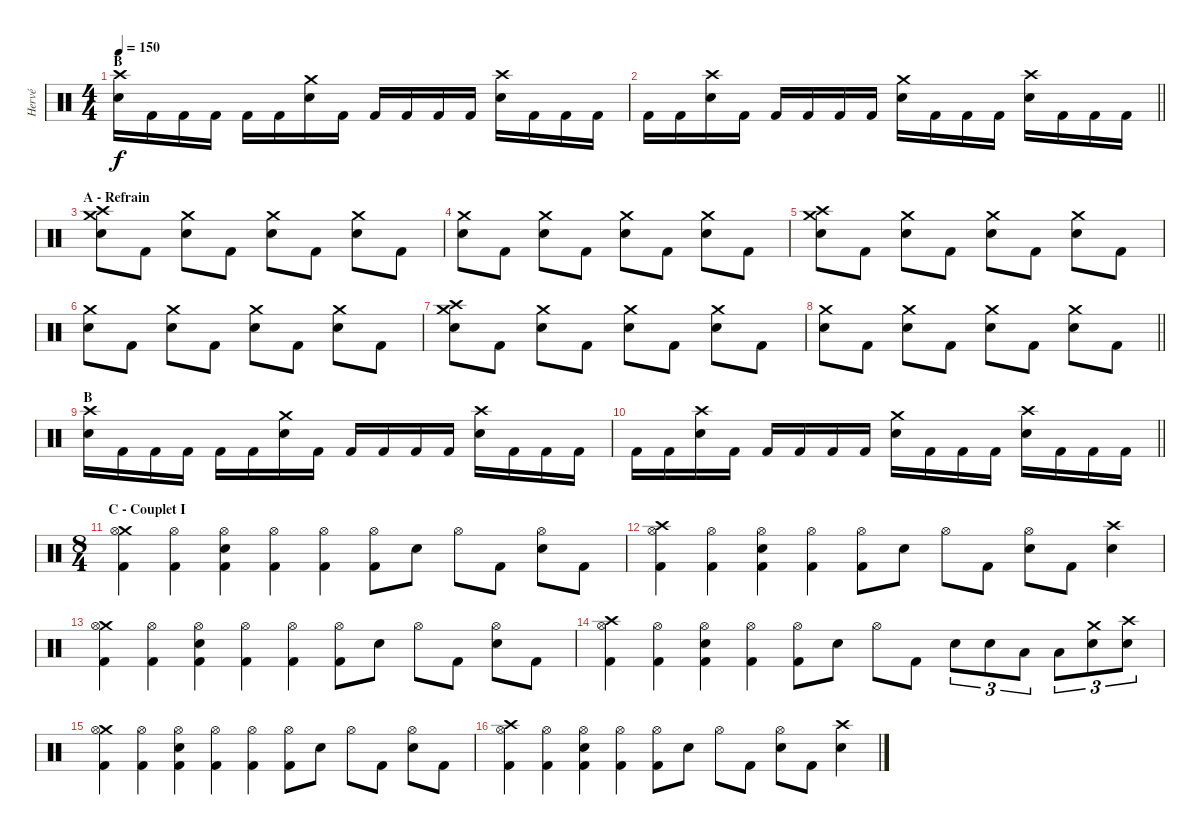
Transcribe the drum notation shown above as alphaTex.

\track ("Hervé" "Hervé") {instrument percussion}
\staff {score}
\articulation defaults
\ts (4 4)
\section ("" "B")
\tempo 150
\clef neutral
\ks c
("Crash high (hit)" "Snare (hit) 2").16{dy f} "Kick (hit) 2".16 "Kick (hit) 2".16 "Kick (hit) 2".16 "Kick (hit) 2".16 "Kick (hit) 2".16 ("Crash medium (hit)" "Snare (hit) 2").16 "Kick (hit) 2".16 "Kick (hit) 2".16 "Kick (hit) 2".16 "Kick (hit) 2".16 "Kick (hit) 2".16 ("Crash high (hit)" "Snare (hit) 2").16 "Kick (hit) 2".16 "Kick (hit) 2".16 "Kick (hit) 2".16 |
\barLineRight lightlight "Kick (hit) 2".16 "Kick (hit) 2".16
("Crash high (hit)" "Snare (hit) 2").16 "Kick (hit) 2".16 "Kick (hit) 2".16 "Kick (hit) 2".16 "Kick (hit) 2".16 "Kick (hit) 2".16 ("Crash medium (hit)" "Snare (hit) 2").16 "Kick (hit) 2".16 "Kick (hit) 2".16 "Kick (hit) 2".16 ("Crash high (hit)" "Snare (hit) 2").16 "Kick (hit) 2".16 "Kick (hit) 2".16 "Kick (hit) 2".16 |
\section ("" "A - Refrain")
("Crash high (hit)" "Crash medium (hit)" "Snare (hit) 2").8 "Kick (hit) 2".8 ("Crash medium (hit)" "Snare (hit) 2").8 "Kick (hit) 2".8 ("Crash medium (hit)" "Snare (hit) 2").8 "Kick (hit) 2".8 ("Crash medium (hit)" "Snare (hit) 2").8 "Kick (hit) 2".8 |
("Crash medium (hit)" "Snare (hit) 2").8 "Kick (hit) 2".8 ("Crash medium (hit)" "Snare (hit) 2").8 "Kick (hit) 2".8 ("Crash medium (hit)" "Snare (hit) 2").8 "Kick (hit) 2".8 ("Crash medium (hit)" "Snare (hit) 2").8 "Kick (hit) 2".8 |
("Crash high (hit)" "Crash medium (hit)" "Snare (hit) 2").8 "Kick (hit) 2".8 ("Crash medium (hit)" "Snare (hit) 2").8 "Kick (hit) 2".8 ("Crash medium (hit)" "Snare (hit) 2").8 "Kick (hit) 2".8 ("Crash medium (hit)" "Snare (hit) 2").8 "Kick (hit) 2".8 |
("Crash medium (hit)" "Snare (hit) 2").8 "Kick (hit) 2".8 ("Crash medium (hit)" "Snare (hit) 2").8 "Kick (hit) 2".8 ("Crash medium (hit)" "Snare (hit) 2").8 "Kick (hit) 2".8 ("Crash medium (hit)" "Snare (hit) 2").8 "Kick (hit) 2".8 |
("Crash high (hit)" "Crash medium (hit)" "Snare (hit) 2").8 "Kick (hit) 2".8 ("Crash medium (hit)" "Snare (hit) 2").8 "Kick (hit) 2".8 ("Crash medium (hit)" "Snare (hit) 2").8 "Kick (hit) 2".8 ("Crash medium (hit)" "Snare (hit) 2").8 "Kick (hit) 2".8 |
\barLineRight lightlight
("Crash medium (hit)" "Snare (hit) 2").8 "Kick (hit) 2".8 ("Crash medium (hit)" "Snare (hit) 2").8 "Kick (hit) 2".8 ("Crash medium (hit)" "Snare (hit) 2").8 "Kick (hit) 2".8 ("Crash medium (hit)" "Snare (hit) 2").8 "Kick (hit) 2".8 |
\section ("" "B")
("Crash high (hit)" "Snare (hit) 2").16 "Kick (hit) 2".16 "Kick (hit) 2".16 "Kick (hit) 2".16 "Kick (hit) 2".16 "Kick (hit) 2".16 ("Crash medium (hit)" "Snare (hit) 2").16 "Kick (hit) 2".16 "Kick (hit) 2".16 "Kick (hit) 2".16 "Kick (hit) 2".16 "Kick (hit) 2".16 ("Crash high (hit)" "Snare (hit) 2").16 "Kick (hit) 2".16 "Kick (hit) 2".16 "Kick (hit) 2".16 |
\barLineRight lightlight "Kick (hit) 2".16 "Kick (hit) 2".16
("Crash high (hit)" "Snare (hit) 2").16 "Kick (hit) 2".16 "Kick (hit) 2".16 "Kick (hit) 2".16 "Kick (hit) 2".16 "Kick (hit) 2".16 ("Crash medium (hit)" "Snare (hit) 2").16 "Kick (hit) 2".16 "Kick (hit) 2".16 "Kick (hit) 2".16 ("Crash high (hit)" "Snare (hit) 2").16 "Kick (hit) 2".16 "Kick (hit) 2".16 "Kick (hit) 2".16 |
\ts (8 4)
\section ("" "C - Couplet I")
("Crash medium (hit)" "Hi-Hat (open)" "Kick (hit) 2").4 ("Hi-Hat (open)" "Kick (hit) 2").4 ("Hi-Hat (open)" "Snare (hit) 2" "Kick (hit) 2").4 ("Hi-Hat (open)" "Kick (hit) 2").4 ("Hi-Hat (open)" "Kick (hit) 2").4 ("Hi-Hat (open)" "Kick (hit) 2").8 "Snare (hit) 2".8 "Hi-Hat (open)".8 "Kick (hit) 2".8 ("Hi-Hat (open)" "Snare (hit) 2").8 "Kick (hit) 2".8 |
("Crash high (hit)" "Hi-Hat (open)" "Kick (hit) 2").4 ("Hi-Hat (open)" "Kick (hit) 2").4 ("Hi-Hat (open)" "Snare (hit) 2" "Kick (hit) 2").4 ("Hi-Hat (open)" "Kick (hit) 2").4 ("Hi-Hat (open)" "Kick (hit) 2").8 "Snare (hit) 2".8 "Hi-Hat (open)".8 "Kick (hit) 2".8 ("Hi-Hat (open)" "Snare (hit) 2").8 "Kick (hit) 2".8 ("Crash high (hit)" "Snare (hit) 2").4 |
("Crash medium (hit)" "Hi-Hat (open)" "Kick (hit) 2").4 ("Hi-Hat (open)" "Kick (hit) 2").4 ("Hi-Hat (open)" "Snare (hit) 2" "Kick (hit) 2").4 ("Hi-Hat (open)" "Kick (hit) 2").4 ("Hi-Hat (open)" "Kick (hit) 2").4 ("Hi-Hat (open)" "Kick (hit) 2").8 "Snare (hit) 2".8 "Hi-Hat (open)".8 "Kick (hit) 2".8 ("Hi-Hat (open)" "Snare (hit) 2").8 "Kick (hit) 2".8 |
("Crash high (hit)" "Hi-Hat (open)" "Kick (hit) 2").4 ("Hi-Hat (open)" "Kick (hit) 2").4 ("Hi-Hat (open)" "Snare (hit) 2" "Kick (hit) 2").4 ("Hi-Hat (open)" "Kick (hit) 2").4 ("Hi-Hat (open)" "Kick (hit) 2").8 "Snare (hit) 2".8 "Hi-Hat (open)".8 "Kick (hit) 2".8 "Snare (hit) 2".8{tu (3 2)} "Snare (hit) 2".8{tu (3 2)} "Low Tom (hit)".8{tu (3 2)} "Low Tom (hit)".8{tu (3 2)} ("Crash medium (hit)" "Snare (hit) 2").8{tu (3 2)} ("Crash high (hit)" "Snare (hit) 2").8{tu (3 2)} |
("Crash medium (hit)" "Hi-Hat (open)" "Kick (hit) 2").4 ("Hi-Hat (open)" "Kick (hit) 2").4 ("Hi-Hat (open)" "Snare (hit) 2" "Kick (hit) 2").4 ("Hi-Hat (open)" "Kick (hit) 2").4 ("Hi-Hat (open)" "Kick (hit) 2").4 ("Hi-Hat (open)" "Kick (hit) 2").8 "Snare (hit) 2".8 "Hi-Hat (open)".8 "Kick (hit) 2".8 ("Hi-Hat (open)" "Snare (hit) 2").8 "Kick (hit) 2".8 |
("Crash high (hit)" "Hi-Hat (open)" "Kick (hit) 2").4 ("Hi-Hat (open)" "Kick (hit) 2").4 ("Hi-Hat (open)" "Snare (hit) 2" "Kick (hit) 2").4 ("Hi-Hat (open)" "Kick (hit) 2").4 ("Hi-Hat (open)" "Kick (hit) 2").8 "Snare (hit) 2".8 "Hi-Hat (open)".8 "Kick (hit) 2".8 ("Hi-Hat (open)" "Snare (hit) 2").8 "Kick (hit) 2".8 ("Crash high (hit)" "Snare (hit) 2").4
